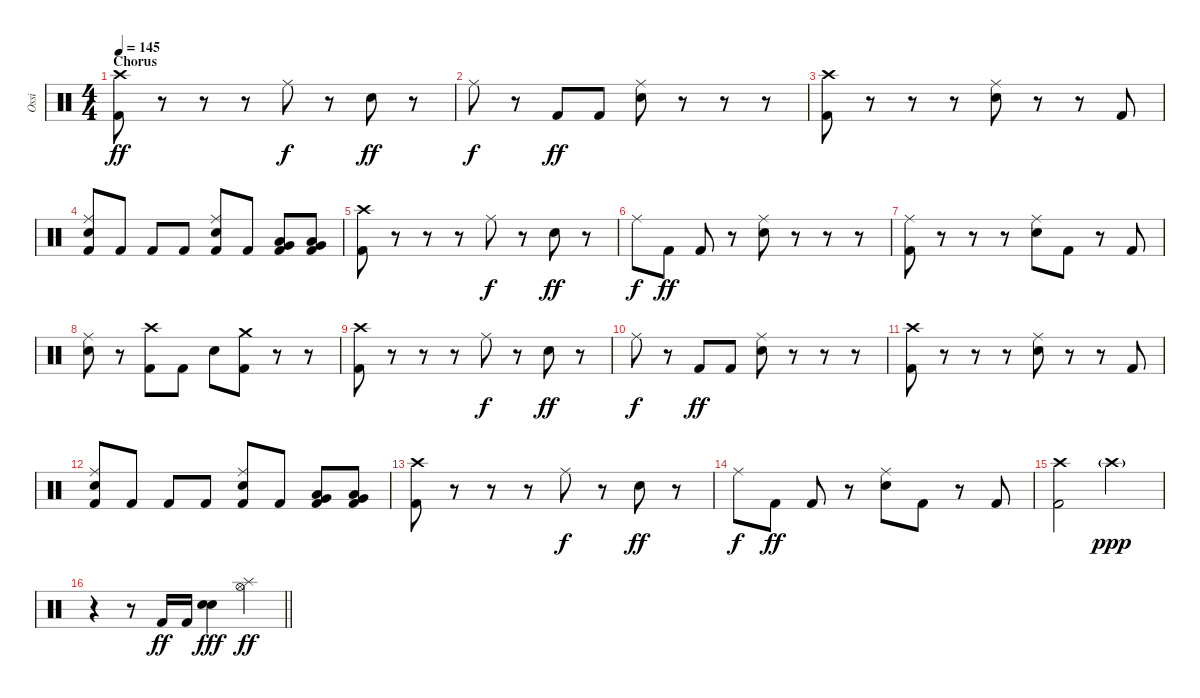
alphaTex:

\track ("Ossi" "Ossi") {instrument percussion}
\staff {score}
\articulation defaults
\ts (4 4)
\section ("" "Chorus")
\tempo 145
\clef neutral
\ks c
("Crash high (hit)" "Kick (hit) 2").8{dy ff} r.8 r.8 r.8 "Ride (middle)".8{dy f} r.8 "Electric Snare (hit)".8{dy ff} r.8 |
"Ride (middle)".8{dy f} r.8 "Kick (hit) 2".8{dy ff} "Kick (hit) 2".8 ("Ride (middle)" "Electric Snare (hit)").8 r.8 r.8 r.8 |
("Crash high (hit)" "Kick (hit) 2").8 r.8 r.8 r.8 ("Ride (middle)" "Electric Snare (hit)").8 r.8 r.8 "Kick (hit) 2".8 |
("Ride (middle)" "Electric Snare (hit)" "Kick (hit) 2").8 "Kick (hit) 2".8 "Kick (hit) 2".8 "Kick (hit) 2".8 ("Ride (middle)" "Electric Snare (hit)" "Kick (hit) 2").8 "Kick (hit) 2".8 ("Low Tom (hit)" "Very Low Tom (hit)" "Kick (hit) 2").8 ("Low Tom (hit)" "Very Low Tom (hit)" "Kick (hit) 2").8 |
("Crash high (hit)" "Kick (hit) 2").8 r.8 r.8 r.8 "Ride (middle)".8{dy f} r.8 "Electric Snare (hit)".8{dy ff} r.8 |
"Ride (middle)".8{dy f} "Kick (hit) 2".8{dy ff} "Kick (hit) 2".8 r.8 ("Ride (middle)" "Electric Snare (hit)").8 r.8 r.8 r.8 |
("Ride (middle)" "Kick (hit) 2").8 r.8 r.8 r.8 ("Ride (middle)" "Electric Snare (hit)").8 "Kick (hit) 2".8 r.8 "Kick (hit) 2".8 |
("Ride (middle)" "Electric Snare (hit)").8 r.8 ("Crash high (hit)" "Kick (hit) 2").8 "Kick (hit) 2".8 "Electric Snare (hit)".8 ("Crash medium (hit)" "Kick (hit) 2").8 r.8 r.8 |
("Crash high (hit)" "Kick (hit) 2").8 r.8 r.8 r.8 "Ride (middle)".8{dy f} r.8 "Electric Snare (hit)".8{dy ff} r.8 |
"Ride (middle)".8{dy f} r.8 "Kick (hit) 2".8{dy ff} "Kick (hit) 2".8 ("Ride (middle)" "Electric Snare (hit)").8 r.8 r.8 r.8 |
("Crash high (hit)" "Kick (hit) 2").8 r.8 r.8 r.8 ("Ride (middle)" "Electric Snare (hit)").8 r.8 r.8 "Kick (hit) 2".8 |
("Ride (middle)" "Electric Snare (hit)" "Kick (hit) 2").8 "Kick (hit) 2".8 "Kick (hit) 2".8 "Kick (hit) 2".8 ("Ride (middle)" "Electric Snare (hit)" "Kick (hit) 2").8 "Kick (hit) 2".8 ("Low Tom (hit)" "Very Low Tom (hit)" "Kick (hit) 2").8 ("Low Tom (hit)" "Very Low Tom (hit)" "Kick (hit) 2").8 |
("Crash high (hit)" "Kick (hit) 2").8 r.8 r.8 r.8 "Ride (middle)".8{dy f} r.8 "Electric Snare (hit)".8{dy ff} r.8 |
"Ride (middle)".8{dy f} "Kick (hit) 2".8{dy ff} "Kick (hit) 2".8 r.8 ("Ride (middle)" "Electric Snare (hit)").8 "Kick (hit) 2".8 r.8 "Kick (hit) 2".8 |
("Crash high (hit)" "Kick (hit) 2").2 "Crash high (hit)"{g}.2{dy ppp} |
\barLineRight lightlight
r.4 r.8 "Kick (hit) 2".16{dy ff} "Kick (hit) 2".16 ("Electric Snare (hit)" "Electric Snare (hit)").4{dy fff} ("Hi-Hat (open)" "Splash (hit)").4{dy ff}
